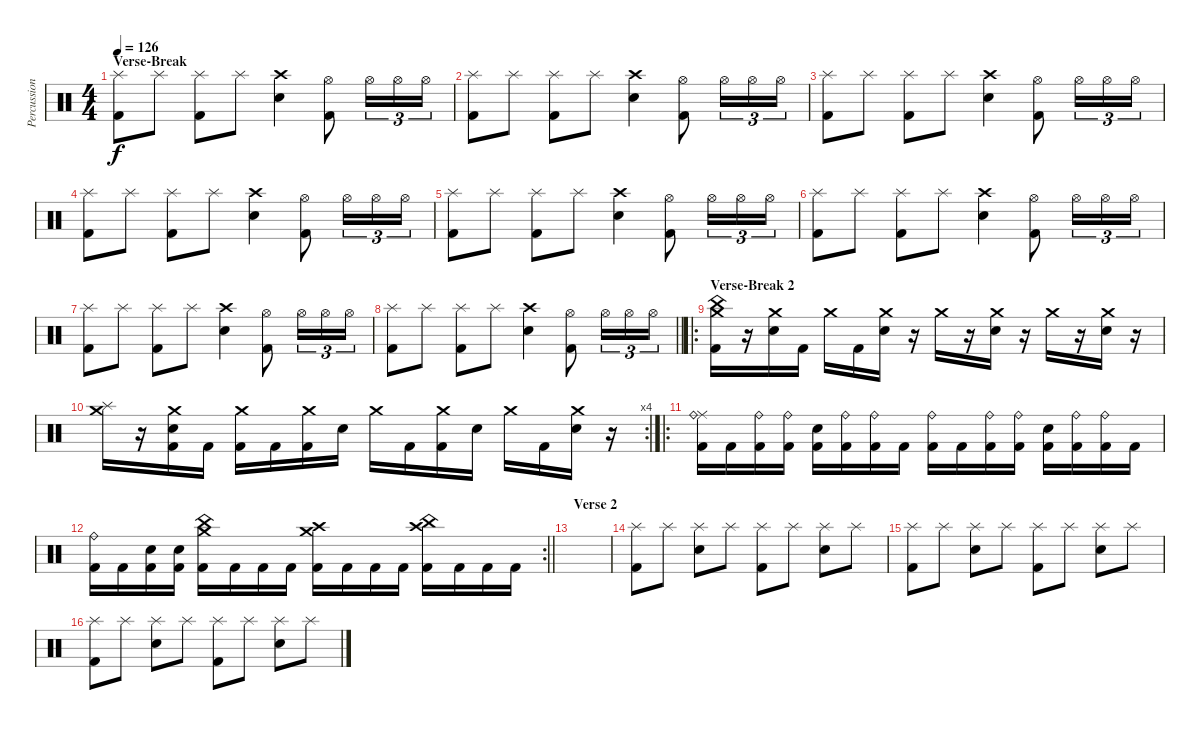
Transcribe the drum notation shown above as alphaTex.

\track ("Percussion" "Percussion") {instrument percussion}
\staff {score}
\articulation defaults
\ts (4 4)
\section ("" "Verse-Break")
\tempo 126
\clef neutral
\ks c
("Splash (hit)" "Kick (hit) 2").8{dy f} "Splash (hit)".8 ("Splash (hit)" "Kick (hit) 2").8 "Splash (hit)".8 ("Crash high (hit)" "Electric Snare (hit)").4 ("Hi-Hat (open)" "Kick (hit) 2").8 "Hi-Hat (open)".16{tu (3 2)} "Hi-Hat (open)".16{tu (3 2)} "Hi-Hat (open)".16{tu (3 2)} |
("Splash (hit)" "Kick (hit) 2").8 "Splash (hit)".8 ("Splash (hit)" "Kick (hit) 2").8 "Splash (hit)".8 ("Crash high (hit)" "Electric Snare (hit)").4 ("Hi-Hat (open)" "Kick (hit) 2").8 "Hi-Hat (open)".16{tu (3 2)} "Hi-Hat (open)".16{tu (3 2)} "Hi-Hat (open)".16{tu (3 2)} |
("Splash (hit)" "Kick (hit) 2").8 "Splash (hit)".8 ("Splash (hit)" "Kick (hit) 2").8 "Splash (hit)".8 ("Crash high (hit)" "Electric Snare (hit)").4 ("Hi-Hat (open)" "Kick (hit) 2").8 "Hi-Hat (open)".16{tu (3 2)} "Hi-Hat (open)".16{tu (3 2)} "Hi-Hat (open)".16{tu (3 2)} |
("Splash (hit)" "Kick (hit) 2").8 "Splash (hit)".8 ("Splash (hit)" "Kick (hit) 2").8 "Splash (hit)".8 ("Crash high (hit)" "Electric Snare (hit)").4 ("Hi-Hat (open)" "Kick (hit) 2").8 "Hi-Hat (open)".16{tu (3 2)} "Hi-Hat (open)".16{tu (3 2)} "Hi-Hat (open)".16{tu (3 2)} |
("Splash (hit)" "Kick (hit) 2").8 "Splash (hit)".8 ("Splash (hit)" "Kick (hit) 2").8 "Splash (hit)".8 ("Crash high (hit)" "Electric Snare (hit)").4 ("Hi-Hat (open)" "Kick (hit) 2").8 "Hi-Hat (open)".16{tu (3 2)} "Hi-Hat (open)".16{tu (3 2)} "Hi-Hat (open)".16{tu (3 2)} |
("Splash (hit)" "Kick (hit) 2").8 "Splash (hit)".8 ("Splash (hit)" "Kick (hit) 2").8 "Splash (hit)".8 ("Crash high (hit)" "Electric Snare (hit)").4 ("Hi-Hat (open)" "Kick (hit) 2").8 "Hi-Hat (open)".16{tu (3 2)} "Hi-Hat (open)".16{tu (3 2)} "Hi-Hat (open)".16{tu (3 2)} |
("Splash (hit)" "Kick (hit) 2").8 "Splash (hit)".8 ("Splash (hit)" "Kick (hit) 2").8 "Splash (hit)".8 ("Crash high (hit)" "Electric Snare (hit)").4 ("Hi-Hat (open)" "Kick (hit) 2").8 "Hi-Hat (open)".16{tu (3 2)} "Hi-Hat (open)".16{tu (3 2)} "Hi-Hat (open)".16{tu (3 2)} |
\barLineRight lightlight
("Splash (hit)" "Kick (hit) 2").8 "Splash (hit)".8 ("Splash (hit)" "Kick (hit) 2").8 "Splash (hit)".8 ("Crash high (hit)" "Electric Snare (hit)").4 ("Hi-Hat (open)" "Kick (hit) 2").8 "Hi-Hat (open)".16{tu (3 2)} "Hi-Hat (open)".16{tu (3 2)} "Hi-Hat (open)".16{tu (3 2)} |
\ro
\section ("" "Verse-Break 2")
("Crash medium (hit)" "China (hit)" "Kick (hit) 2").16 r.16 ("Crash medium (hit)" "Electric Snare (hit)").16 "Kick (hit) 2".16 "Crash medium (hit)".16 "Kick (hit) 2".16 ("Crash medium (hit)" "Electric Snare (hit)").16 r.16 "Crash medium (hit)".16 r.16 ("Crash medium (hit)" "Electric Snare (hit)").16 r.16 "Crash medium (hit)".16 r.16 ("Crash medium (hit)" "Electric Snare (hit)").16 r.16 |
\rc 4
("Crash medium (hit)" "Splash (hit)").16 r.16 ("Crash medium (hit)" "Electric Snare (hit)" "Kick (hit) 2").16 "Kick (hit) 2".16 ("Crash medium (hit)" "Kick (hit) 2").16 "Kick (hit) 2".16 ("Crash medium (hit)" "Kick (hit) 2").16 "Electric Snare (hit)".16 "Crash medium (hit)".16 "Kick (hit) 2".16 ("Crash medium (hit)" "Kick (hit) 2").16 "Electric Snare (hit)".16 "Crash medium (hit)".16 "Kick (hit) 2".16 ("Crash medium (hit)" "Electric Snare (hit)").16 r.16 |
\ro
("Ride (middle)" "Ride (bell)" "Kick (hit) 2").16 "Kick (hit) 2".16 ("Ride (bell)" "Kick (hit) 2").16 ("Ride (bell)" "Kick (hit) 2").16 ("Electric Snare (hit)" "Kick (hit) 2").16 ("Ride (bell)" "Kick (hit) 2").16 ("Ride (bell)" "Kick (hit) 2").16 "Kick (hit) 2".16 ("Ride (bell)" "Kick (hit) 2").16 "Kick (hit) 2".16 ("Ride (bell)" "Kick (hit) 2").16 ("Ride (bell)" "Kick (hit) 2").16 ("Electric Snare (hit)" "Kick (hit) 2").16 ("Ride (bell)" "Kick (hit) 2").16 ("Ride (bell)" "Kick (hit) 2").16 "Kick (hit) 2".16 |
\rc 2
\barLineRight lightlight
("Ride (bell)" "Kick (hit) 2").16 "Kick (hit) 2".16 ("Electric Snare (hit)" "Kick (hit) 2").16 ("Electric Snare (hit)" "Kick (hit) 2").16 ("Crash medium (hit)" "China (hit)" "Kick (hit) 2").16 "Kick (hit) 2".16 "Kick (hit) 2".16 "Kick (hit) 2".16 ("Crash high (hit)" "Crash medium (hit)" "Kick (hit) 2").16 "Kick (hit) 2".16 "Kick (hit) 2".16 "Kick (hit) 2".16 ("China (hit)" "Crash high (hit)" "Kick (hit) 2").16 "Kick (hit) 2".16 "Kick (hit) 2".16 "Kick (hit) 2".16 |
\section ("" "Verse 2")
|
("Splash (hit)" "Kick (hit) 2").8 "Splash (hit)".8 ("Splash (hit)" "Electric Snare (hit)").8 "Splash (hit)".8 ("Splash (hit)" "Kick (hit) 2").8 "Splash (hit)".8 ("Splash (hit)" "Electric Snare (hit)").8 "Splash (hit)".8 |
("Splash (hit)" "Kick (hit) 2").8 "Splash (hit)".8 ("Splash (hit)" "Electric Snare (hit)").8 "Splash (hit)".8 ("Splash (hit)" "Kick (hit) 2").8 "Splash (hit)".8 ("Splash (hit)" "Electric Snare (hit)").8 "Splash (hit)".8 |
("Splash (hit)" "Kick (hit) 2").8 "Splash (hit)".8 ("Splash (hit)" "Electric Snare (hit)").8 "Splash (hit)".8 ("Splash (hit)" "Kick (hit) 2").8 "Splash (hit)".8 ("Splash (hit)" "Electric Snare (hit)").8 "Splash (hit)".8
